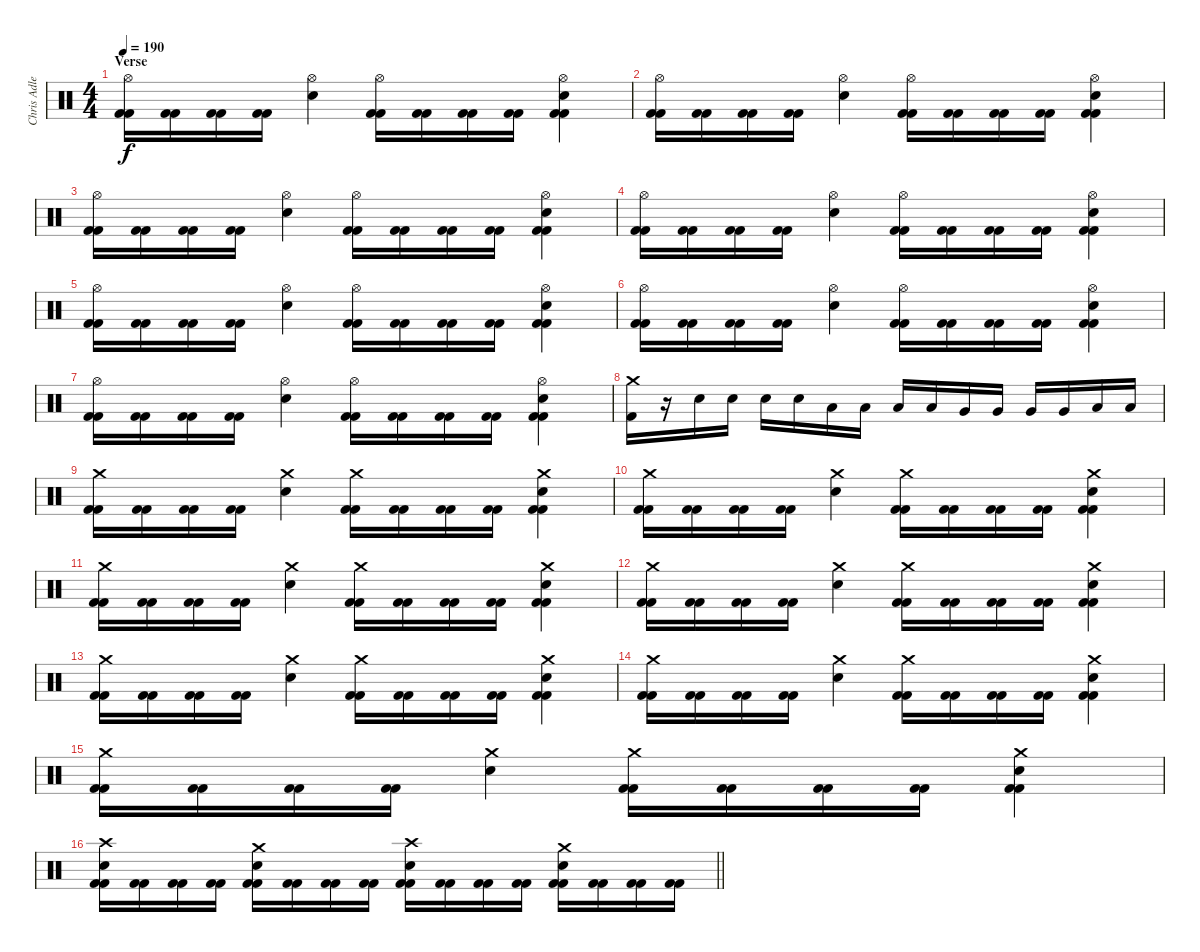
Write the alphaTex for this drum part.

\track ("Chris Adler" "Chris Adle") {instrument percussion}
\staff {score}
\articulation defaults
\ts (4 4)
\section ("" "Verse")
\tempo 190
\clef neutral
\ks c
("Hi-Hat (open)" "Kick (hit) 2" "Kick (hit) 2").16{dy f} ("Kick (hit) 2" "Kick (hit) 2").16 ("Kick (hit) 2" "Kick (hit) 2").16 ("Kick (hit) 2" "Kick (hit) 2").16 ("Hi-Hat (open)" "Electric Snare (hit)").4 ("Hi-Hat (open)" "Kick (hit) 2" "Kick (hit) 2").16 ("Kick (hit) 2" "Kick (hit) 2").16 ("Kick (hit) 2" "Kick (hit) 2").16 ("Kick (hit) 2" "Kick (hit) 2").16 ("Hi-Hat (open)" "Electric Snare (hit)" "Kick (hit) 2" "Kick (hit) 2").4 |
("Hi-Hat (open)" "Kick (hit) 2" "Kick (hit) 2").16 ("Kick (hit) 2" "Kick (hit) 2").16 ("Kick (hit) 2" "Kick (hit) 2").16 ("Kick (hit) 2" "Kick (hit) 2").16 ("Hi-Hat (open)" "Electric Snare (hit)").4 ("Hi-Hat (open)" "Kick (hit) 2" "Kick (hit) 2").16 ("Kick (hit) 2" "Kick (hit) 2").16 ("Kick (hit) 2" "Kick (hit) 2").16 ("Kick (hit) 2" "Kick (hit) 2").16 ("Hi-Hat (open)" "Electric Snare (hit)" "Kick (hit) 2" "Kick (hit) 2").4 |
("Hi-Hat (open)" "Kick (hit) 2" "Kick (hit) 2").16 ("Kick (hit) 2" "Kick (hit) 2").16 ("Kick (hit) 2" "Kick (hit) 2").16 ("Kick (hit) 2" "Kick (hit) 2").16 ("Hi-Hat (open)" "Electric Snare (hit)").4 ("Hi-Hat (open)" "Kick (hit) 2" "Kick (hit) 2").16 ("Kick (hit) 2" "Kick (hit) 2").16 ("Kick (hit) 2" "Kick (hit) 2").16 ("Kick (hit) 2" "Kick (hit) 2").16 ("Hi-Hat (open)" "Electric Snare (hit)" "Kick (hit) 2" "Kick (hit) 2").4 |
("Hi-Hat (open)" "Kick (hit) 2" "Kick (hit) 2").16 ("Kick (hit) 2" "Kick (hit) 2").16 ("Kick (hit) 2" "Kick (hit) 2").16 ("Kick (hit) 2" "Kick (hit) 2").16 ("Hi-Hat (open)" "Electric Snare (hit)").4 ("Hi-Hat (open)" "Kick (hit) 2" "Kick (hit) 2").16 ("Kick (hit) 2" "Kick (hit) 2").16 ("Kick (hit) 2" "Kick (hit) 2").16 ("Kick (hit) 2" "Kick (hit) 2").16 ("Hi-Hat (open)" "Electric Snare (hit)" "Kick (hit) 2" "Kick (hit) 2").4 |
("Hi-Hat (open)" "Kick (hit) 2" "Kick (hit) 2").16 ("Kick (hit) 2" "Kick (hit) 2").16 ("Kick (hit) 2" "Kick (hit) 2").16 ("Kick (hit) 2" "Kick (hit) 2").16 ("Hi-Hat (open)" "Electric Snare (hit)").4 ("Hi-Hat (open)" "Kick (hit) 2" "Kick (hit) 2").16 ("Kick (hit) 2" "Kick (hit) 2").16 ("Kick (hit) 2" "Kick (hit) 2").16 ("Kick (hit) 2" "Kick (hit) 2").16 ("Hi-Hat (open)" "Electric Snare (hit)" "Kick (hit) 2" "Kick (hit) 2").4 |
("Hi-Hat (open)" "Kick (hit) 2" "Kick (hit) 2").16 ("Kick (hit) 2" "Kick (hit) 2").16 ("Kick (hit) 2" "Kick (hit) 2").16 ("Kick (hit) 2" "Kick (hit) 2").16 ("Hi-Hat (open)" "Electric Snare (hit)").4 ("Hi-Hat (open)" "Kick (hit) 2" "Kick (hit) 2").16 ("Kick (hit) 2" "Kick (hit) 2").16 ("Kick (hit) 2" "Kick (hit) 2").16 ("Kick (hit) 2" "Kick (hit) 2").16 ("Hi-Hat (open)" "Electric Snare (hit)" "Kick (hit) 2" "Kick (hit) 2").4 |
("Hi-Hat (open)" "Kick (hit) 2" "Kick (hit) 2").16 ("Kick (hit) 2" "Kick (hit) 2").16 ("Kick (hit) 2" "Kick (hit) 2").16 ("Kick (hit) 2" "Kick (hit) 2").16 ("Hi-Hat (open)" "Electric Snare (hit)").4 ("Hi-Hat (open)" "Kick (hit) 2" "Kick (hit) 2").16 ("Kick (hit) 2" "Kick (hit) 2").16 ("Kick (hit) 2" "Kick (hit) 2").16 ("Kick (hit) 2" "Kick (hit) 2").16 ("Hi-Hat (open)" "Electric Snare (hit)" "Kick (hit) 2" "Kick (hit) 2").4 |
("Kick (hit) 2" "Crash medium (hit)").16 r.16 "Electric Snare (hit)".16 "Electric Snare (hit)".16 "Electric Snare (hit)".16 "Electric Snare (hit)".16 "Low Tom (hit)".16 "Low Tom (hit)".16 "Low Tom (hit)".16 "Low Tom (hit)".16 "Very Low Tom (hit)".16 "Very Low Tom (hit)".16 "Very Low Tom (hit)".16 "Very Low Tom (hit)".16 "Low Floor Tom (hit)".16 "Low Floor Tom (hit)".16 |
("Crash medium (hit)" "Kick (hit) 2" "Kick (hit) 2").16 ("Kick (hit) 2" "Kick (hit) 2").16 ("Kick (hit) 2" "Kick (hit) 2").16 ("Kick (hit) 2" "Kick (hit) 2").16 ("Crash medium (hit)" "Electric Snare (hit)").4 ("Crash medium (hit)" "Kick (hit) 2" "Kick (hit) 2").16 ("Kick (hit) 2" "Kick (hit) 2").16 ("Kick (hit) 2" "Kick (hit) 2").16 ("Kick (hit) 2" "Kick (hit) 2").16 ("Crash medium (hit)" "Electric Snare (hit)" "Kick (hit) 2" "Kick (hit) 2").4 |
("Crash medium (hit)" "Kick (hit) 2" "Kick (hit) 2").16 ("Kick (hit) 2" "Kick (hit) 2").16 ("Kick (hit) 2" "Kick (hit) 2").16 ("Kick (hit) 2" "Kick (hit) 2").16 ("Crash medium (hit)" "Electric Snare (hit)").4 ("Crash medium (hit)" "Kick (hit) 2" "Kick (hit) 2").16 ("Kick (hit) 2" "Kick (hit) 2").16 ("Kick (hit) 2" "Kick (hit) 2").16 ("Kick (hit) 2" "Kick (hit) 2").16 ("Crash medium (hit)" "Electric Snare (hit)" "Kick (hit) 2" "Kick (hit) 2").4 |
("Crash medium (hit)" "Kick (hit) 2" "Kick (hit) 2").16 ("Kick (hit) 2" "Kick (hit) 2").16 ("Kick (hit) 2" "Kick (hit) 2").16 ("Kick (hit) 2" "Kick (hit) 2").16 ("Crash medium (hit)" "Electric Snare (hit)").4 ("Crash medium (hit)" "Kick (hit) 2" "Kick (hit) 2").16 ("Kick (hit) 2" "Kick (hit) 2").16 ("Kick (hit) 2" "Kick (hit) 2").16 ("Kick (hit) 2" "Kick (hit) 2").16 ("Crash medium (hit)" "Electric Snare (hit)" "Kick (hit) 2" "Kick (hit) 2").4 |
("Crash medium (hit)" "Kick (hit) 2" "Kick (hit) 2").16 ("Kick (hit) 2" "Kick (hit) 2").16 ("Kick (hit) 2" "Kick (hit) 2").16 ("Kick (hit) 2" "Kick (hit) 2").16 ("Crash medium (hit)" "Electric Snare (hit)").4 ("Crash medium (hit)" "Kick (hit) 2" "Kick (hit) 2").16 ("Kick (hit) 2" "Kick (hit) 2").16 ("Kick (hit) 2" "Kick (hit) 2").16 ("Kick (hit) 2" "Kick (hit) 2").16 ("Crash medium (hit)" "Electric Snare (hit)" "Kick (hit) 2" "Kick (hit) 2").4 |
("Crash medium (hit)" "Kick (hit) 2" "Kick (hit) 2").16 ("Kick (hit) 2" "Kick (hit) 2").16 ("Kick (hit) 2" "Kick (hit) 2").16 ("Kick (hit) 2" "Kick (hit) 2").16 ("Crash medium (hit)" "Electric Snare (hit)").4 ("Crash medium (hit)" "Kick (hit) 2" "Kick (hit) 2").16 ("Kick (hit) 2" "Kick (hit) 2").16 ("Kick (hit) 2" "Kick (hit) 2").16 ("Kick (hit) 2" "Kick (hit) 2").16 ("Crash medium (hit)" "Electric Snare (hit)" "Kick (hit) 2" "Kick (hit) 2").4 |
("Crash medium (hit)" "Kick (hit) 2" "Kick (hit) 2").16 ("Kick (hit) 2" "Kick (hit) 2").16 ("Kick (hit) 2" "Kick (hit) 2").16 ("Kick (hit) 2" "Kick (hit) 2").16 ("Crash medium (hit)" "Electric Snare (hit)").4 ("Crash medium (hit)" "Kick (hit) 2" "Kick (hit) 2").16 ("Kick (hit) 2" "Kick (hit) 2").16 ("Kick (hit) 2" "Kick (hit) 2").16 ("Kick (hit) 2" "Kick (hit) 2").16 ("Crash medium (hit)" "Electric Snare (hit)" "Kick (hit) 2" "Kick (hit) 2").4 |
("Crash medium (hit)" "Kick (hit) 2" "Kick (hit) 2").16 ("Kick (hit) 2" "Kick (hit) 2").16 ("Kick (hit) 2" "Kick (hit) 2").16 ("Kick (hit) 2" "Kick (hit) 2").16 ("Crash medium (hit)" "Electric Snare (hit)").4 ("Crash medium (hit)" "Kick (hit) 2" "Kick (hit) 2").16 ("Kick (hit) 2" "Kick (hit) 2").16 ("Kick (hit) 2" "Kick (hit) 2").16 ("Kick (hit) 2" "Kick (hit) 2").16 ("Crash medium (hit)" "Electric Snare (hit)" "Kick (hit) 2" "Kick (hit) 2").4 |
\barLineRight lightlight
("Crash high (hit)" "Electric Snare (hit)" "Kick (hit) 2" "Kick (hit) 2").16 ("Kick (hit) 2" "Kick (hit) 2").16 ("Kick (hit) 2" "Kick (hit) 2").16 ("Kick (hit) 2" "Kick (hit) 2").16 ("Crash medium (hit)" "Electric Snare (hit)" "Kick (hit) 2" "Kick (hit) 2").16 ("Kick (hit) 2" "Kick (hit) 2").16 ("Kick (hit) 2" "Kick (hit) 2").16 ("Kick (hit) 2" "Kick (hit) 2").16 ("Crash high (hit)" "Electric Snare (hit)" "Kick (hit) 2" "Kick (hit) 2").16 ("Kick (hit) 2" "Kick (hit) 2").16 ("Kick (hit) 2" "Kick (hit) 2").16 ("Kick (hit) 2" "Kick (hit) 2").16 ("Crash medium (hit)" "Electric Snare (hit)" "Kick (hit) 2" "Kick (hit) 2").16 ("Kick (hit) 2" "Kick (hit) 2").16 ("Kick (hit) 2" "Kick (hit) 2").16 ("Kick (hit) 2" "Kick (hit) 2").16
